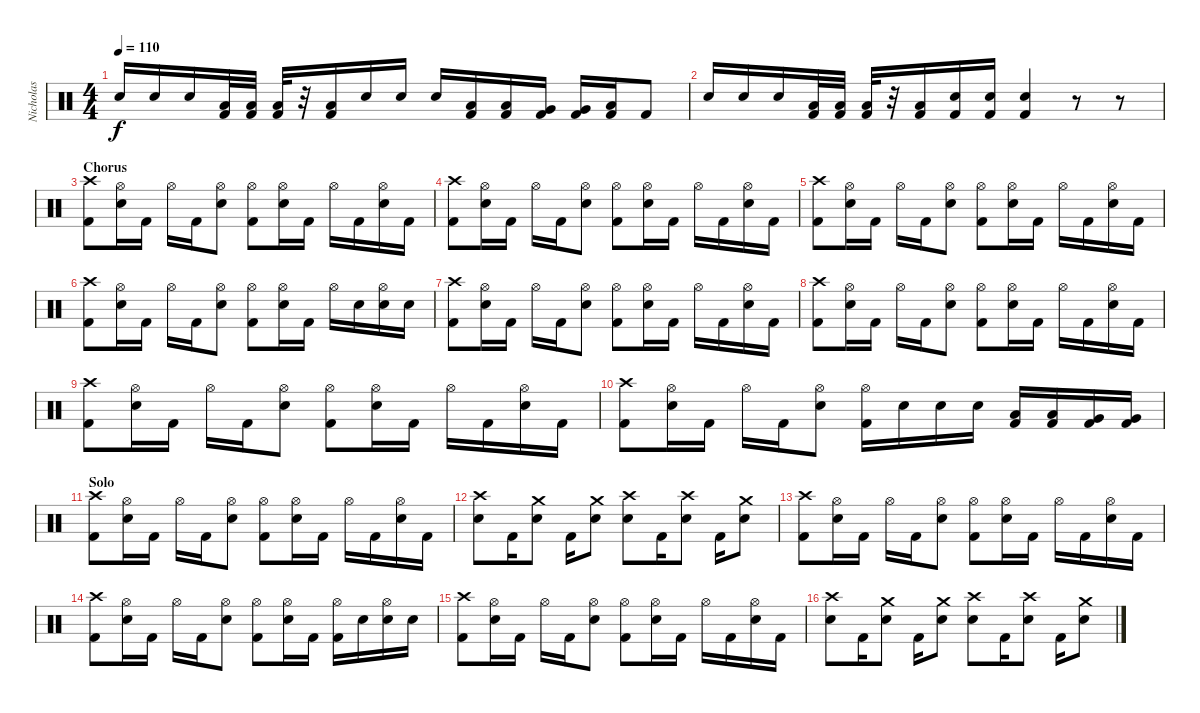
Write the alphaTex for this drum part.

\track ("Nicholas" "Nicholas") {instrument percussion}
\staff {score}
\articulation defaults
\ts (4 4)
\tempo 110
\clef neutral
\ks c "Snare (hit) 2".16{dy f} "Snare (hit) 2".16 "Snare (hit) 2".16
("Kick (hit) 2" "Low Tom (hit)").32 ("Kick (hit) 2" "Low Tom (hit)").32 ("Kick (hit) 2" "Low Tom (hit)").32 r.32 ("Kick (hit) 2" "Low Tom (hit)").16 "Snare (hit) 2".16 "Snare (hit) 2".16 "Snare (hit) 2".16 ("Kick (hit) 2" "Low Tom (hit)").16 ("Kick (hit) 2" "Low Tom (hit)").16 ("Kick (hit) 2" "Very Low Tom (hit)").16 ("Kick (hit) 2" "Very Low Tom (hit)").16 ("Kick (hit) 2" "Low Floor Tom (hit)").16 "Kick (hit) 2".8 |
"Snare (hit) 2".16 "Snare (hit) 2".16 "Snare (hit) 2".16 ("Kick (hit) 2" "Low Tom (hit)").32 ("Kick (hit) 2" "Low Tom (hit)").32 ("Kick (hit) 2" "Low Tom (hit)").32 r.32 ("Kick (hit) 2" "Low Tom (hit)").16 ("Kick (hit) 2" "Snare (hit) 2").16 ("Kick (hit) 2" "Snare (hit) 2").16 ("Kick (hit) 2" "Snare (hit) 2").4 r.8 r.8 |
\section ("" "Chorus")
("Crash high (hit)" "Kick (hit) 2").8 ("Hi-Hat (open)" "Snare (hit) 2").16 "Kick (hit) 2".16 "Hi-Hat (open)".16 "Kick (hit) 2".16 ("Hi-Hat (open)" "Snare (hit) 2").8 ("Hi-Hat (open)" "Kick (hit) 2").8 ("Hi-Hat (open)" "Snare (hit) 2").16 "Kick (hit) 2".16 "Hi-Hat (open)".16 "Kick (hit) 2".16 ("Hi-Hat (open)" "Snare (hit) 2").16 "Kick (hit) 2".16 |
("Crash high (hit)" "Kick (hit) 2").8 ("Hi-Hat (open)" "Snare (hit) 2").16 "Kick (hit) 2".16 "Hi-Hat (open)".16 "Kick (hit) 2".16 ("Hi-Hat (open)" "Snare (hit) 2").8 ("Hi-Hat (open)" "Kick (hit) 2").8 ("Hi-Hat (open)" "Snare (hit) 2").16 "Kick (hit) 2".16 "Hi-Hat (open)".16 "Kick (hit) 2".16 ("Hi-Hat (open)" "Snare (hit) 2").16 "Kick (hit) 2".16 |
("Crash high (hit)" "Kick (hit) 2").8 ("Hi-Hat (open)" "Snare (hit) 2").16 "Kick (hit) 2".16 "Hi-Hat (open)".16 "Kick (hit) 2".16 ("Hi-Hat (open)" "Snare (hit) 2").8 ("Hi-Hat (open)" "Kick (hit) 2").8 ("Hi-Hat (open)" "Snare (hit) 2").16 "Kick (hit) 2".16 "Hi-Hat (open)".16 "Kick (hit) 2".16 ("Hi-Hat (open)" "Snare (hit) 2").16 "Kick (hit) 2".16 |
("Crash high (hit)" "Kick (hit) 2").8 ("Hi-Hat (open)" "Snare (hit) 2").16 "Kick (hit) 2".16 "Hi-Hat (open)".16 "Kick (hit) 2".16 ("Hi-Hat (open)" "Snare (hit) 2").8 ("Hi-Hat (open)" "Kick (hit) 2").8 ("Hi-Hat (open)" "Snare (hit) 2").16 "Kick (hit) 2".16 "Hi-Hat (open)".16 "Snare (hit) 2".16 ("Hi-Hat (open)" "Snare (hit) 2").16 "Snare (hit) 2".16 |
("Crash high (hit)" "Kick (hit) 2").8 ("Hi-Hat (open)" "Snare (hit) 2").16 "Kick (hit) 2".16 "Hi-Hat (open)".16 "Kick (hit) 2".16 ("Hi-Hat (open)" "Snare (hit) 2").8 ("Hi-Hat (open)" "Kick (hit) 2").8 ("Hi-Hat (open)" "Snare (hit) 2").16 "Kick (hit) 2".16 "Hi-Hat (open)".16 "Kick (hit) 2".16 ("Hi-Hat (open)" "Snare (hit) 2").16 "Kick (hit) 2".16 |
("Crash high (hit)" "Kick (hit) 2").8 ("Hi-Hat (open)" "Snare (hit) 2").16 "Kick (hit) 2".16 "Hi-Hat (open)".16 "Kick (hit) 2".16 ("Hi-Hat (open)" "Snare (hit) 2").8 ("Hi-Hat (open)" "Kick (hit) 2").8 ("Hi-Hat (open)" "Snare (hit) 2").16 "Kick (hit) 2".16 "Hi-Hat (open)".16 "Kick (hit) 2".16 ("Hi-Hat (open)" "Snare (hit) 2").16 "Kick (hit) 2".16 |
("Crash high (hit)" "Kick (hit) 2").8 ("Hi-Hat (open)" "Snare (hit) 2").16 "Kick (hit) 2".16 "Hi-Hat (open)".16 "Kick (hit) 2".16 ("Hi-Hat (open)" "Snare (hit) 2").8 ("Hi-Hat (open)" "Kick (hit) 2").8 ("Hi-Hat (open)" "Snare (hit) 2").16 "Kick (hit) 2".16 "Hi-Hat (open)".16 "Kick (hit) 2".16 ("Hi-Hat (open)" "Snare (hit) 2").16 "Kick (hit) 2".16 |
("Crash high (hit)" "Kick (hit) 2").8 ("Hi-Hat (open)" "Snare (hit) 2").16 "Kick (hit) 2".16 "Hi-Hat (open)".16 "Kick (hit) 2".16 ("Hi-Hat (open)" "Snare (hit) 2").8 ("Hi-Hat (open)" "Kick (hit) 2").16 "Snare (hit) 2".16 "Snare (hit) 2".16 "Snare (hit) 2".16 ("Kick (hit) 2" "Low Tom (hit)").16 ("Kick (hit) 2" "Low Tom (hit)").16 ("Kick (hit) 2" "Very Low Tom (hit)").16 ("Kick (hit) 2" "Very Low Tom (hit)").16 |
\section ("" "Solo")
("Crash high (hit)" "Kick (hit) 2").8 ("Hi-Hat (open)" "Snare (hit) 2").16 "Kick (hit) 2".16 "Hi-Hat (open)".16 "Kick (hit) 2".16 ("Hi-Hat (open)" "Snare (hit) 2").8 ("Hi-Hat (open)" "Kick (hit) 2").8 ("Hi-Hat (open)" "Snare (hit) 2").16 "Kick (hit) 2".16 "Hi-Hat (open)".16 "Kick (hit) 2".16 ("Hi-Hat (open)" "Snare (hit) 2").16 "Kick (hit) 2".16 |
("Crash high (hit)" "Snare (hit) 2").8 "Kick (hit) 2".16 ("Crash medium (hit)" "Snare (hit) 2").8 "Kick (hit) 2".16 ("Crash medium (hit)" "Snare (hit) 2").8 ("Crash high (hit)" "Snare (hit) 2").8 "Kick (hit) 2".16 ("Crash high (hit)" "Snare (hit) 2").8 "Kick (hit) 2".16 ("Crash medium (hit)" "Snare (hit) 2").8 |
("Crash high (hit)" "Kick (hit) 2").8 ("Hi-Hat (open)" "Snare (hit) 2").16 "Kick (hit) 2".16 "Hi-Hat (open)".16 "Kick (hit) 2".16 ("Hi-Hat (open)" "Snare (hit) 2").8 ("Hi-Hat (open)" "Kick (hit) 2").8 ("Hi-Hat (open)" "Snare (hit) 2").16 "Kick (hit) 2".16 "Hi-Hat (open)".16 "Kick (hit) 2".16 ("Hi-Hat (open)" "Snare (hit) 2").16 "Kick (hit) 2".16 |
("Crash high (hit)" "Kick (hit) 2").8 ("Hi-Hat (open)" "Snare (hit) 2").16 "Kick (hit) 2".16 "Hi-Hat (open)".16 "Kick (hit) 2".16 ("Hi-Hat (open)" "Snare (hit) 2").8 ("Hi-Hat (open)" "Kick (hit) 2").8 ("Hi-Hat (open)" "Snare (hit) 2").16 "Kick (hit) 2".16 ("Hi-Hat (open)" "Kick (hit) 2").16 "Snare (hit) 2".16 ("Hi-Hat (open)" "Snare (hit) 2").16 "Snare (hit) 2".16 |
("Crash high (hit)" "Kick (hit) 2").8 ("Hi-Hat (open)" "Snare (hit) 2").16 "Kick (hit) 2".16 "Hi-Hat (open)".16 "Kick (hit) 2".16 ("Hi-Hat (open)" "Snare (hit) 2").8 ("Hi-Hat (open)" "Kick (hit) 2").8 ("Hi-Hat (open)" "Snare (hit) 2").16 "Kick (hit) 2".16 "Hi-Hat (open)".16 "Kick (hit) 2".16 ("Hi-Hat (open)" "Snare (hit) 2").16 "Kick (hit) 2".16 |
("Crash high (hit)" "Snare (hit) 2").8 "Kick (hit) 2".16 ("Crash medium (hit)" "Snare (hit) 2").8 "Kick (hit) 2".16 ("Crash medium (hit)" "Snare (hit) 2").8 ("Crash high (hit)" "Snare (hit) 2").8 "Kick (hit) 2".16 ("Crash high (hit)" "Snare (hit) 2").8 "Kick (hit) 2".16 ("Crash medium (hit)" "Snare (hit) 2").8
